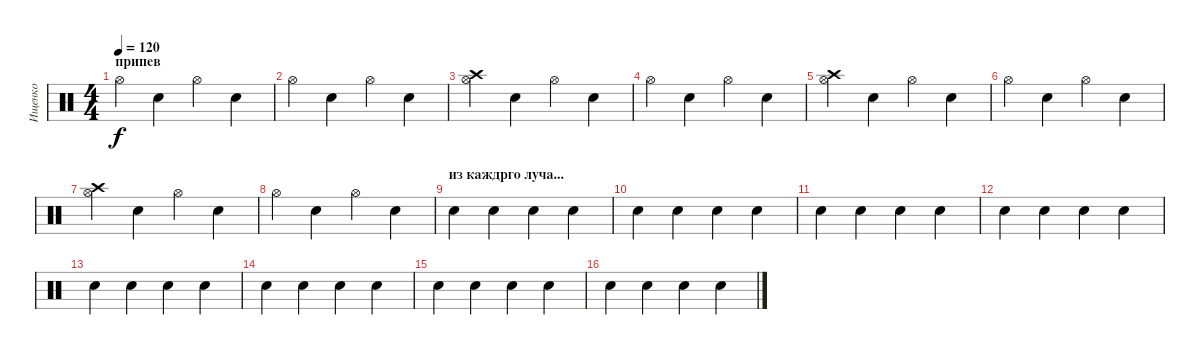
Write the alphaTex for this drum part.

\track ("Ищенко" "Ищенко") {instrument percussion}
\staff {score}
\articulation defaults
\ts (4 4)
\section ("" "припев")
\tempo 120
\clef neutral
\ks c "Hi-Hat (open)".4{dy f} "Electric Snare (hit)".4 "Hi-Hat (open)".4 "Electric Snare (hit)".4
|
"Hi-Hat (open)".4 "Electric Snare (hit)".4 "Hi-Hat (open)".4 "Electric Snare (hit)".4 |
("Hi-Hat (open)" "Crash high (hit)").4 "Electric Snare (hit)".4 "Hi-Hat (open)".4 "Electric Snare (hit)".4 |
"Hi-Hat (open)".4 "Electric Snare (hit)".4 "Hi-Hat (open)".4 "Electric Snare (hit)".4 |
("Hi-Hat (open)" "Crash high (hit)").4 "Electric Snare (hit)".4 "Hi-Hat (open)".4 "Electric Snare (hit)".4 |
"Hi-Hat (open)".4 "Electric Snare (hit)".4 "Hi-Hat (open)".4 "Electric Snare (hit)".4 |
("Hi-Hat (open)" "Crash high (hit)").4 "Electric Snare (hit)".4 "Hi-Hat (open)".4 "Electric Snare (hit)".4 |
"Hi-Hat (open)".4 "Electric Snare (hit)".4 "Hi-Hat (open)".4 "Electric Snare (hit)".4 |
\section ("" "из каждрго луча...")
"Snare (hit) 2".4 "Electric Snare (hit)".4 "Snare (hit) 2".4 "Electric Snare (hit)".4 |
"Snare (hit) 2".4 "Electric Snare (hit)".4 "Snare (hit) 2".4 "Electric Snare (hit)".4 |
"Snare (hit) 2".4 "Electric Snare (hit)".4 "Snare (hit) 2".4 "Electric Snare (hit)".4 |
"Snare (hit) 2".4 "Electric Snare (hit)".4 "Snare (hit) 2".4 "Electric Snare (hit)".4 |
"Snare (hit) 2".4 "Electric Snare (hit)".4 "Snare (hit) 2".4 "Electric Snare (hit)".4 |
"Snare (hit) 2".4 "Electric Snare (hit)".4 "Snare (hit) 2".4 "Electric Snare (hit)".4 |
"Snare (hit) 2".4 "Electric Snare (hit)".4 "Snare (hit) 2".4 "Electric Snare (hit)".4 |
"Snare (hit) 2".4 "Electric Snare (hit)".4 "Snare (hit) 2".4 "Electric Snare (hit)".4
